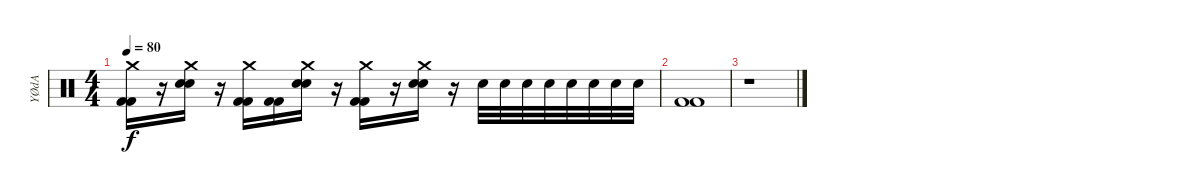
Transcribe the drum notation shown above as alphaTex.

\track ("YØdA" "YØdA") {instrument percussion}
\staff {score}
\articulation defaults
\ts (4 4)
\tempo 80
\clef neutral
\ks c
("Kick (hit) 2" "Crash medium (hit)" "Kick (hit) 2").16{dy f} r.16 ("Crash medium (hit)" "Electric Snare (hit)" "Electric Snare (hit)").16 r.16 ("Kick (hit) 2" "Crash medium (hit)" "Kick (hit) 2").16 ("Kick (hit) 2" "Kick (hit) 2").16 ("Crash medium (hit)" "Electric Snare (hit)" "Electric Snare (hit)").16 r.16 ("Kick (hit) 2" "Crash medium (hit)" "Kick (hit) 2").16 r.16 ("Crash medium (hit)" "Electric Snare (hit)" "Electric Snare (hit)").16 r.16 "Electric Snare (hit)".32 "Electric Snare (hit)".32 "Electric Snare (hit)".32 "Electric Snare (hit)".32 "Electric Snare (hit)".32 "Electric Snare (hit)".32 "Electric Snare (hit)".32 "Electric Snare (hit)".32 |
("Kick (hit) 2" "Kick (hit) 2").1 |
r.1
